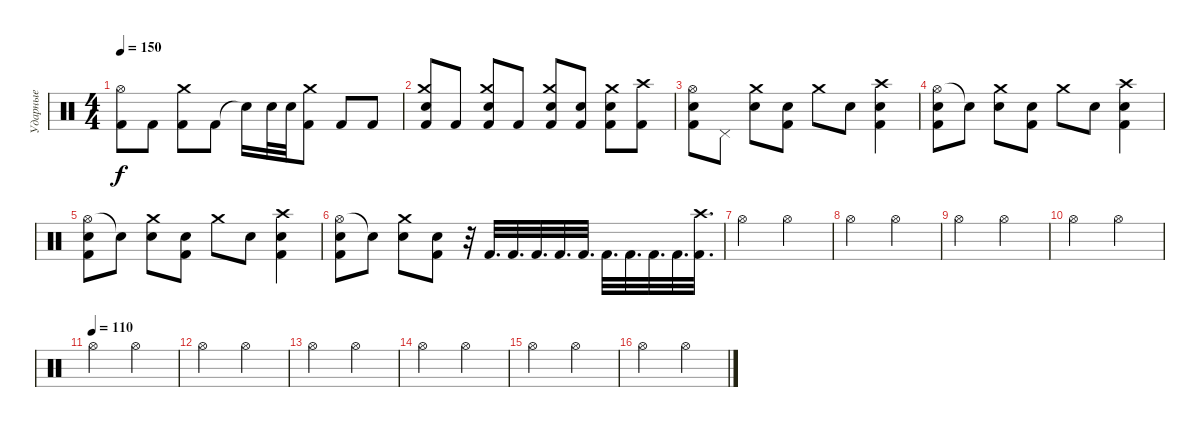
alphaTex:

\track ("Ударные" "Ударные") {instrument percussion}
\staff {score}
\articulation defaults
\ts (4 4)
\tempo 150
\clef neutral
\ks c
("Hi-Hat (open)" "Kick (hit) 2").8{dy f} "Kick (hit) 2".8 ("Crash medium (hit)" "Kick (hit) 2").8 "Kick (hit) 2".8 "Snare (hit)"{t}.16 "Electric Snare (hit)".32 "Electric Snare (hit)".32 ("Crash medium (hit)" "Kick (hit) 2").8 "Kick (hit) 2".8 "Kick (hit) 2".8 |
("Crash medium (hit)" "Electric Snare (hit)" "Kick (hit) 2").8 "Kick (hit) 2".8 ("Crash medium (hit)" "Electric Snare (hit)" "Kick (hit) 2").8 "Kick (hit) 2".8 ("Crash medium (hit)" "Electric Snare (hit)" "Kick (hit) 2").8 ("Electric Snare (hit)" "Kick (hit) 2").8 ("Crash medium (hit)" "Electric Snare (hit)" "Kick (hit) 2").8 ("Crash high (hit)" "Kick (hit) 2").8 |
("Hi-Hat (open)" "Electric Snare (hit)" "Kick (hit) 2").8 "Pedal Hi-Hat (hit)".8 ("Crash medium (hit)" "Electric Snare (hit)").8 ("Electric Snare (hit)" "Kick (hit) 2").8 "Crash medium (hit)".8 "Electric Snare (hit)".8 ("Crash high (hit)" "Electric Snare (hit)" "Kick (hit) 2").4 |
("Hi-Hat (open)" "Electric Snare (hit)" "Kick (hit) 2").8 "Snare (hit)"{t}.8 ("Crash medium (hit)" "Electric Snare (hit)").8 ("Electric Snare (hit)" "Kick (hit) 2").8 "Crash medium (hit)".8 "Electric Snare (hit)".8 ("Crash high (hit)" "Electric Snare (hit)" "Kick (hit) 2").4 |
("Hi-Hat (open)" "Electric Snare (hit)" "Kick (hit) 2").8 "Snare (hit)"{t}.8 ("Crash medium (hit)" "Electric Snare (hit)").8 ("Electric Snare (hit)" "Kick (hit) 2").8 "Crash medium (hit)".8 "Electric Snare (hit)".8 ("Crash high (hit)" "Electric Snare (hit)" "Kick (hit) 2").4 |
("Hi-Hat (open)" "Electric Snare (hit)" "Kick (hit) 2").8 "Snare (hit)"{t}.8 ("Crash medium (hit)" "Electric Snare (hit)").8 ("Electric Snare (hit)" "Kick (hit) 2").8 r.32 "Kick (hit) 2".32{d} "Kick (hit) 2".32{d} "Kick (hit) 2".32{d} "Kick (hit) 2".32{d} "Kick (hit) 2".32{d} "Kick (hit) 2".32{d} "Kick (hit) 2".32{d} "Kick (hit) 2".32{d} "Kick (hit) 2".32{d} ("Crash high (hit)" "Kick (hit) 2").32{d} |
"Hi-Hat (open)".2 "Hi-Hat (open)".2 |
"Hi-Hat (open)".2 "Hi-Hat (open)".2 |
"Hi-Hat (open)".2 "Hi-Hat (open)".2 |
"Hi-Hat (open)".2 "Hi-Hat (open)".2 |
\tempo (110)
"Hi-Hat (open)".2 "Hi-Hat (open)".2 |
"Hi-Hat (open)".2 "Hi-Hat (open)".2 |
"Hi-Hat (open)".2 "Hi-Hat (open)".2 |
"Hi-Hat (open)".2 "Hi-Hat (open)".2 |
"Hi-Hat (open)".2 "Hi-Hat (open)".2 |
"Hi-Hat (open)".2 "Hi-Hat (open)".2
